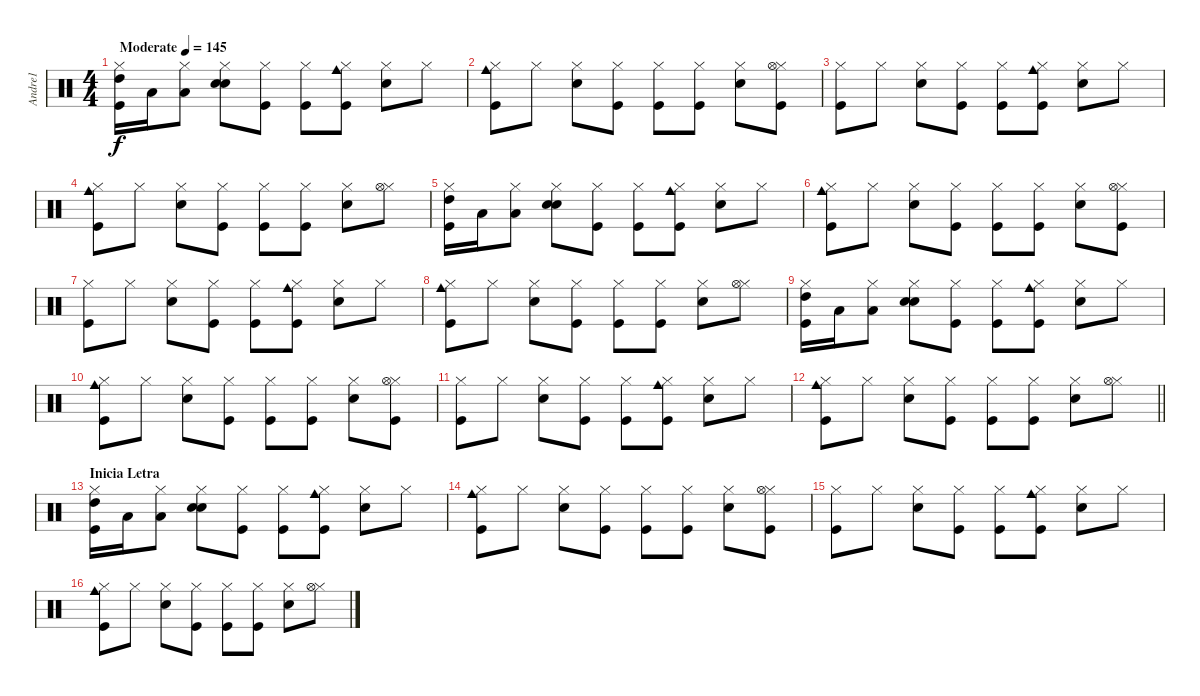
\track ("Andre1" "Andre1") {instrument percussion}
\staff {score}
\articulation defaults
\ts (4 4)
\tempo (145 "Moderate")
\clef neutral
\ks c
("Hi-Hat (closed)" "Kick (hit)" "High Tom (hit)").16{dy f} "Low Tom (hit)".16 ("Hi-Hat (closed)" "Low Floor Tom (hit)").8 ("Snare (hit) 2" "Hand Clap (hit)" "Hi-Hat (closed)").8 ("Hi-Hat (closed)" "Kick (hit)").8 ("Hi-Hat (closed)" "Kick (hit)").8 ("Kick (hit)" "Cowbell medium (hit)" "Hi-Hat (closed)").8 ("Hi-Hat (closed)" "Snare (hit) 2").8 "Hi-Hat (closed)".8 |
("Kick (hit)" "Hi-Hat (closed)" "Cowbell medium (hit)").8 "Hi-Hat (closed)".8 ("Snare (hit) 2" "Hi-Hat (closed)").8 ("Hi-Hat (closed)" "Kick (hit)").8 ("Hi-Hat (closed)" "Kick (hit)").8 ("Kick (hit)" "Hi-Hat (closed)").8 ("Hi-Hat (closed)" "Snare (hit) 2").8 ("Hi-Hat (closed)" "Kick (hit)" "Hi-Hat (open)").8 |
("Kick (hit)" "Hi-Hat (closed)").8 "Hi-Hat (closed)".8 ("Snare (hit) 2" "Hi-Hat (closed)").8 ("Hi-Hat (closed)" "Kick (hit)").8 ("Hi-Hat (closed)" "Kick (hit)").8 ("Cowbell medium (hit)" "Kick (hit)" "Hi-Hat (closed)").8 ("Hi-Hat (closed)" "Snare (hit) 2").8 "Hi-Hat (closed)".8 |
("Kick (hit)" "Cowbell medium (hit)" "Hi-Hat (closed)").8 "Hi-Hat (closed)".8 ("Snare (hit) 2" "Hi-Hat (closed)").8 ("Hi-Hat (closed)" "Kick (hit)").8 ("Hi-Hat (closed)" "Kick (hit)").8 ("Kick (hit)" "Hi-Hat (closed)").8 ("Hi-Hat (closed)" "Snare (hit) 2").8 ("Hi-Hat (closed)" "Hi-Hat (open)").8 |
("Hi-Hat (closed)" "Kick (hit)" "High Tom (hit)").16 "Low Tom (hit)".16 ("Hi-Hat (closed)" "Low Floor Tom (hit)").8 ("Snare (hit) 2" "Hand Clap (hit)" "Hi-Hat (closed)").8 ("Hi-Hat (closed)" "Kick (hit)").8 ("Hi-Hat (closed)" "Kick (hit)").8 ("Kick (hit)" "Cowbell medium (hit)" "Hi-Hat (closed)").8 ("Hi-Hat (closed)" "Snare (hit) 2").8 "Hi-Hat (closed)".8 |
("Kick (hit)" "Hi-Hat (closed)" "Cowbell medium (hit)").8 "Hi-Hat (closed)".8 ("Snare (hit) 2" "Hi-Hat (closed)").8 ("Hi-Hat (closed)" "Kick (hit)").8 ("Hi-Hat (closed)" "Kick (hit)").8 ("Kick (hit)" "Hi-Hat (closed)").8 ("Hi-Hat (closed)" "Snare (hit) 2").8 ("Hi-Hat (closed)" "Kick (hit)" "Hi-Hat (open)").8 |
("Kick (hit)" "Hi-Hat (closed)").8 "Hi-Hat (closed)".8 ("Snare (hit) 2" "Hi-Hat (closed)").8 ("Hi-Hat (closed)" "Kick (hit)").8 ("Hi-Hat (closed)" "Kick (hit)").8 ("Cowbell medium (hit)" "Kick (hit)" "Hi-Hat (closed)").8 ("Hi-Hat (closed)" "Snare (hit) 2").8 "Hi-Hat (closed)".8 |
("Kick (hit)" "Cowbell medium (hit)" "Hi-Hat (closed)").8 "Hi-Hat (closed)".8 ("Snare (hit) 2" "Hi-Hat (closed)").8 ("Hi-Hat (closed)" "Kick (hit)").8 ("Hi-Hat (closed)" "Kick (hit)").8 ("Kick (hit)" "Hi-Hat (closed)").8 ("Hi-Hat (closed)" "Snare (hit) 2").8 ("Hi-Hat (closed)" "Hi-Hat (open)").8 |
("Hi-Hat (closed)" "Kick (hit)" "High Tom (hit)").16 "Low Tom (hit)".16 ("Hi-Hat (closed)" "Low Floor Tom (hit)").8 ("Snare (hit) 2" "Hand Clap (hit)" "Hi-Hat (closed)").8 ("Hi-Hat (closed)" "Kick (hit)").8 ("Hi-Hat (closed)" "Kick (hit)").8 ("Kick (hit)" "Cowbell medium (hit)" "Hi-Hat (closed)").8 ("Hi-Hat (closed)" "Snare (hit) 2").8 "Hi-Hat (closed)".8 |
("Kick (hit)" "Hi-Hat (closed)" "Cowbell medium (hit)").8 "Hi-Hat (closed)".8 ("Snare (hit) 2" "Hi-Hat (closed)").8 ("Hi-Hat (closed)" "Kick (hit)").8 ("Hi-Hat (closed)" "Kick (hit)").8 ("Kick (hit)" "Hi-Hat (closed)").8 ("Hi-Hat (closed)" "Snare (hit) 2").8 ("Hi-Hat (closed)" "Kick (hit)" "Hi-Hat (open)").8 |
("Kick (hit)" "Hi-Hat (closed)").8 "Hi-Hat (closed)".8 ("Snare (hit) 2" "Hi-Hat (closed)").8 ("Hi-Hat (closed)" "Kick (hit)").8 ("Hi-Hat (closed)" "Kick (hit)").8 ("Cowbell medium (hit)" "Kick (hit)" "Hi-Hat (closed)").8 ("Hi-Hat (closed)" "Snare (hit) 2").8 "Hi-Hat (closed)".8 |
\barLineRight lightlight
("Kick (hit)" "Cowbell medium (hit)" "Hi-Hat (closed)").8 "Hi-Hat (closed)".8 ("Snare (hit) 2" "Hi-Hat (closed)").8 ("Hi-Hat (closed)" "Kick (hit)").8 ("Hi-Hat (closed)" "Kick (hit)").8 ("Kick (hit)" "Hi-Hat (closed)").8 ("Hi-Hat (closed)" "Snare (hit) 2").8 ("Hi-Hat (closed)" "Hi-Hat (open)").8 |
\section ("" "Inicia Letra")
("Hi-Hat (closed)" "Kick (hit)" "High Tom (hit)").16 "Low Tom (hit)".16 ("Hi-Hat (closed)" "Low Floor Tom (hit)").8 ("Snare (hit) 2" "Hand Clap (hit)" "Hi-Hat (closed)").8 ("Hi-Hat (closed)" "Kick (hit)").8 ("Hi-Hat (closed)" "Kick (hit)").8 ("Kick (hit)" "Cowbell medium (hit)" "Hi-Hat (closed)").8 ("Hi-Hat (closed)" "Snare (hit) 2").8 "Hi-Hat (closed)".8 |
("Kick (hit)" "Hi-Hat (closed)" "Cowbell medium (hit)").8 "Hi-Hat (closed)".8 ("Snare (hit) 2" "Hi-Hat (closed)").8 ("Hi-Hat (closed)" "Kick (hit)").8 ("Hi-Hat (closed)" "Kick (hit)").8 ("Kick (hit)" "Hi-Hat (closed)").8 ("Hi-Hat (closed)" "Snare (hit) 2").8 ("Hi-Hat (closed)" "Kick (hit)" "Hi-Hat (open)").8 |
("Kick (hit)" "Hi-Hat (closed)").8 "Hi-Hat (closed)".8 ("Snare (hit) 2" "Hi-Hat (closed)").8 ("Hi-Hat (closed)" "Kick (hit)").8 ("Hi-Hat (closed)" "Kick (hit)").8 ("Cowbell medium (hit)" "Kick (hit)" "Hi-Hat (closed)").8 ("Hi-Hat (closed)" "Snare (hit) 2").8 "Hi-Hat (closed)".8 |
("Kick (hit)" "Cowbell medium (hit)" "Hi-Hat (closed)").8 "Hi-Hat (closed)".8 ("Snare (hit) 2" "Hi-Hat (closed)").8 ("Hi-Hat (closed)" "Kick (hit)").8 ("Hi-Hat (closed)" "Kick (hit)").8 ("Kick (hit)" "Hi-Hat (closed)").8 ("Hi-Hat (closed)" "Snare (hit) 2").8 ("Hi-Hat (closed)" "Hi-Hat (open)").8
